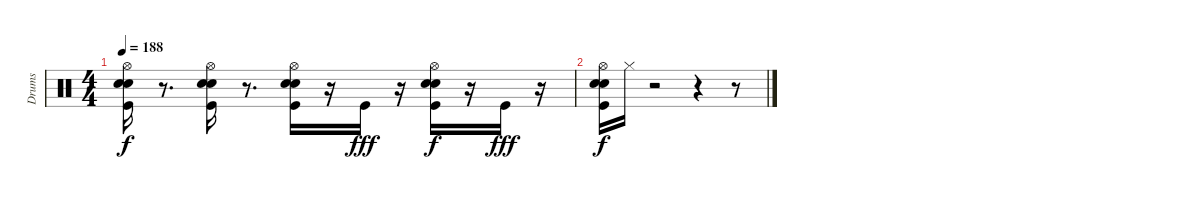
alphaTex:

\track ("Drums" "Drums") {instrument percussion}
\staff {score}
\articulation defaults
\ts (4 4)
\tempo 188
\clef neutral
\ks c
("Hi-Hat (open)" "Snare (hit) 2" "Kick (hit)" "Snare (hit) 2").16{dy f} r.8{d} ("Hi-Hat (open)" "Snare (hit) 2" "Kick (hit)" "Snare (hit) 2").16 r.8{d} ("Hi-Hat (open)" "Snare (hit) 2" "Kick (hit)" "Snare (hit) 2").16 r.16 "Kick (hit)".16{dy fff} r.16 ("Hi-Hat (open)" "Snare (hit) 2" "Kick (hit)" "Snare (hit) 2").16{dy f} r.16 "Kick (hit)".16{dy fff} r.16 |
("Hi-Hat (open)" "Snare (hit) 2" "Kick (hit)" "Snare (hit) 2").16{dy f} "Hi-Hat (closed)".16 r.2 r.4 r.8
